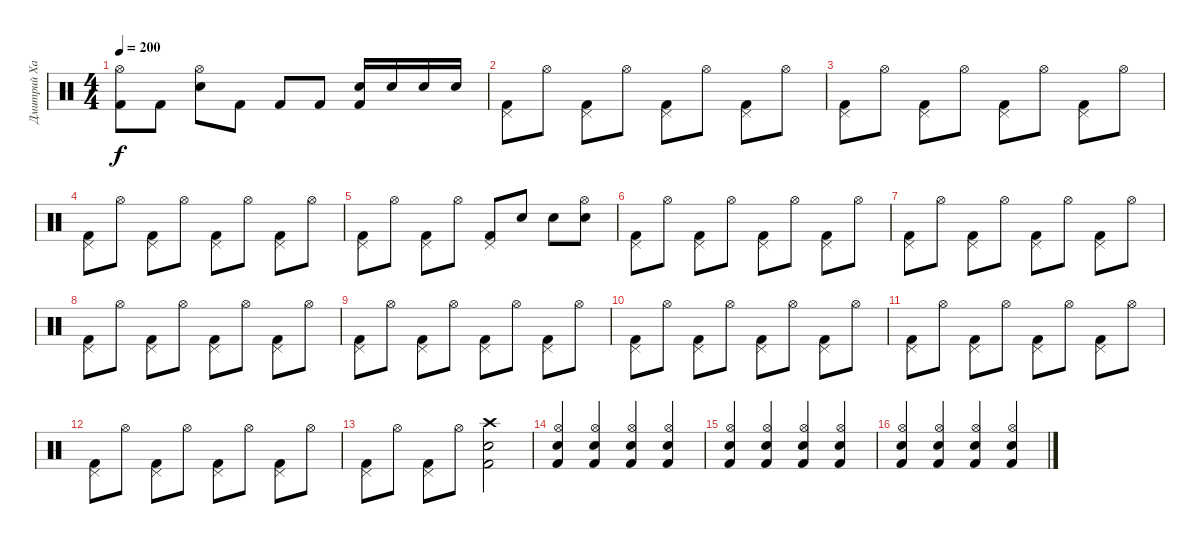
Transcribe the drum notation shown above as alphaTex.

\track ("Дмитрий Хакимов" "Дмитрий Ха") {instrument percussion}
\staff {score}
\articulation defaults
\ts (4 4)
\tempo 200
\clef neutral
\ks c
("Kick (hit) 2" "Hi-Hat (open)").8{dy f} "Kick (hit) 2".8 ("Electric Snare (hit)" "Hi-Hat (open)").8 "Kick (hit) 2".8 "Kick (hit) 2".8 "Kick (hit) 2".8 ("Electric Snare (hit)" "Kick (hit) 2").16 "Electric Snare (hit)".16 "Electric Snare (hit)".16 "Electric Snare (hit)".16 |
("Pedal Hi-Hat (hit)" "Kick (hit) 2").8 "Hi-Hat (open)".8 ("Pedal Hi-Hat (hit)" "Kick (hit) 2").8 "Hi-Hat (open)".8 ("Pedal Hi-Hat (hit)" "Kick (hit) 2").8 "Hi-Hat (open)".8 ("Pedal Hi-Hat (hit)" "Kick (hit) 2").8 "Hi-Hat (open)".8 |
("Pedal Hi-Hat (hit)" "Kick (hit) 2").8 "Hi-Hat (open)".8 ("Pedal Hi-Hat (hit)" "Kick (hit) 2").8 "Hi-Hat (open)".8 ("Pedal Hi-Hat (hit)" "Kick (hit) 2").8 "Hi-Hat (open)".8 ("Pedal Hi-Hat (hit)" "Kick (hit) 2").8 "Hi-Hat (open)".8 |
("Pedal Hi-Hat (hit)" "Kick (hit) 2").8 "Hi-Hat (open)".8 ("Pedal Hi-Hat (hit)" "Kick (hit) 2").8 "Hi-Hat (open)".8 ("Pedal Hi-Hat (hit)" "Kick (hit) 2").8 "Hi-Hat (open)".8 ("Pedal Hi-Hat (hit)" "Kick (hit) 2").8 "Hi-Hat (open)".8 |
("Pedal Hi-Hat (hit)" "Kick (hit) 2").8 "Hi-Hat (open)".8 ("Pedal Hi-Hat (hit)" "Kick (hit) 2").8 "Hi-Hat (open)".8 ("Pedal Hi-Hat (hit)" "Kick (hit) 2").8 "Snare (hit) 2".8 "Snare (hit) 2".8 ("Hi-Hat (open)" "Electric Snare (hit)").8 |
("Pedal Hi-Hat (hit)" "Kick (hit) 2").8 "Hi-Hat (open)".8 ("Pedal Hi-Hat (hit)" "Kick (hit) 2").8 "Hi-Hat (open)".8 ("Pedal Hi-Hat (hit)" "Kick (hit) 2").8 "Hi-Hat (open)".8 ("Pedal Hi-Hat (hit)" "Kick (hit) 2").8 "Hi-Hat (open)".8 |
("Pedal Hi-Hat (hit)" "Kick (hit) 2").8 "Hi-Hat (open)".8 ("Pedal Hi-Hat (hit)" "Kick (hit) 2").8 "Hi-Hat (open)".8 ("Pedal Hi-Hat (hit)" "Kick (hit) 2").8 "Hi-Hat (open)".8 ("Pedal Hi-Hat (hit)" "Kick (hit) 2").8 "Hi-Hat (open)".8 |
("Pedal Hi-Hat (hit)" "Kick (hit) 2").8 "Hi-Hat (open)".8 ("Pedal Hi-Hat (hit)" "Kick (hit) 2").8 "Hi-Hat (open)".8 ("Pedal Hi-Hat (hit)" "Kick (hit) 2").8 "Hi-Hat (open)".8 ("Pedal Hi-Hat (hit)" "Kick (hit) 2").8 "Hi-Hat (open)".8 |
("Pedal Hi-Hat (hit)" "Kick (hit) 2").8 "Hi-Hat (open)".8 ("Pedal Hi-Hat (hit)" "Kick (hit) 2").8 "Hi-Hat (open)".8 ("Pedal Hi-Hat (hit)" "Kick (hit) 2").8 "Hi-Hat (open)".8 ("Pedal Hi-Hat (hit)" "Kick (hit) 2").8 "Hi-Hat (open)".8 |
("Pedal Hi-Hat (hit)" "Kick (hit) 2").8 "Hi-Hat (open)".8 ("Pedal Hi-Hat (hit)" "Kick (hit) 2").8 "Hi-Hat (open)".8 ("Pedal Hi-Hat (hit)" "Kick (hit) 2").8 "Hi-Hat (open)".8 ("Pedal Hi-Hat (hit)" "Kick (hit) 2").8 "Hi-Hat (open)".8 |
("Pedal Hi-Hat (hit)" "Kick (hit) 2").8 "Hi-Hat (open)".8 ("Pedal Hi-Hat (hit)" "Kick (hit) 2").8 "Hi-Hat (open)".8 ("Pedal Hi-Hat (hit)" "Kick (hit) 2").8 "Hi-Hat (open)".8 ("Pedal Hi-Hat (hit)" "Kick (hit) 2").8 "Hi-Hat (open)".8 |
("Pedal Hi-Hat (hit)" "Kick (hit) 2").8 "Hi-Hat (open)".8 ("Pedal Hi-Hat (hit)" "Kick (hit) 2").8 "Hi-Hat (open)".8 ("Pedal Hi-Hat (hit)" "Kick (hit) 2").8 "Hi-Hat (open)".8 ("Pedal Hi-Hat (hit)" "Kick (hit) 2").8 "Hi-Hat (open)".8 |
("Pedal Hi-Hat (hit)" "Kick (hit) 2").8 "Hi-Hat (open)".8 ("Pedal Hi-Hat (hit)" "Kick (hit) 2").8 "Hi-Hat (open)".8 ("Crash high (hit)" "Electric Snare (hit)" "Kick (hit) 2").2 |
("Hi-Hat (open)" "Electric Snare (hit)" "Kick (hit) 2").4 ("Hi-Hat (open)" "Electric Snare (hit)" "Kick (hit) 2").4 ("Hi-Hat (open)" "Electric Snare (hit)" "Kick (hit) 2").4 ("Hi-Hat (open)" "Electric Snare (hit)" "Kick (hit) 2").4 |
("Hi-Hat (open)" "Electric Snare (hit)" "Kick (hit) 2").4 ("Hi-Hat (open)" "Electric Snare (hit)" "Kick (hit) 2").4 ("Hi-Hat (open)" "Electric Snare (hit)" "Kick (hit) 2").4 ("Hi-Hat (open)" "Electric Snare (hit)" "Kick (hit) 2").4 |
("Hi-Hat (open)" "Electric Snare (hit)" "Kick (hit) 2").4 ("Hi-Hat (open)" "Electric Snare (hit)" "Kick (hit) 2").4 ("Hi-Hat (open)" "Electric Snare (hit)" "Kick (hit) 2").4 ("Hi-Hat (open)" "Electric Snare (hit)" "Kick (hit) 2").4
